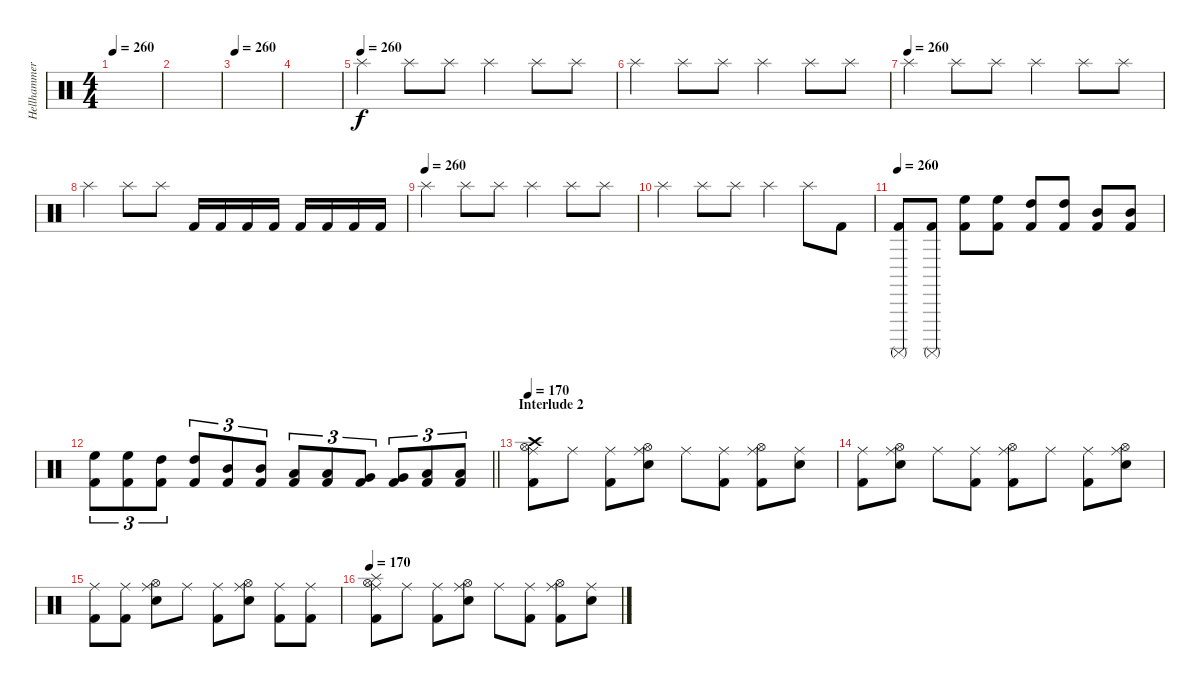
\track ("Hellhammer" "Hellhammer") {instrument percussion}
\staff {score}
\articulation defaults
\ts (4 4)
\tempo 260
\clef neutral
\ks c
|
|
\tempo 260
|
|
\tempo (260)
"Splash (hit)".4 "Splash (hit)".8 "Splash (hit)".8 "Splash (hit)".4 "Splash (hit)".8 "Splash (hit)".8 |
"Splash (hit)".4 "Splash (hit)".8 "Splash (hit)".8 "Splash (hit)".4 "Splash (hit)".8 "Splash (hit)".8 |
\tempo (260)
"Splash (hit)".4 "Splash (hit)".8 "Splash (hit)".8 "Splash (hit)".4 "Splash (hit)".8 "Splash (hit)".8 |
"Splash (hit)".4 "Splash (hit)".8 "Splash (hit)".8 "Kick (hit) 2".16 "Kick (hit) 2".16 "Kick (hit) 2".16 "Kick (hit) 2".16 "Kick (hit) 2".16 "Kick (hit) 2".16 "Kick (hit) 2".16 "Kick (hit) 2".16 |
\tempo (260)
"Splash (hit)".4 "Splash (hit)".8 "Splash (hit)".8 "Splash (hit)".4 "Splash (hit)".8 "Splash (hit)".8 |
"Splash (hit)".4 "Splash (hit)".8 "Splash (hit)".8 "Splash (hit)".4 "Splash (hit)".8 "Kick (hit) 2".8 |
\tempo 260
("Surdo (mute)" "Kick (hit) 2").8 ("Surdo (mute)" "Kick (hit) 2").8 ("High Floor Tom (hit)" "Kick (hit) 2").8 ("High Floor Tom (hit)" "Kick (hit) 2").8 ("High Tom (hit)" "Kick (hit) 2").8 ("High Tom (hit)" "Kick (hit) 2").8 ("Mid Tom (hit)" "Kick (hit) 2").8 ("Mid Tom (hit)" "Kick (hit) 2").8 |
\barLineRight lightlight
("High Floor Tom (hit)" "Kick (hit) 2").8{tu (3 2)} ("High Floor Tom (hit)" "Kick (hit) 2").8{tu (3 2)} ("High Tom (hit)" "Kick (hit) 2").8{tu (3 2)} ("High Tom (hit)" "Kick (hit) 2").8{tu (3 2)} ("Mid Tom (hit)" "Kick (hit) 2").8{tu (3 2)} ("Mid Tom (hit)" "Kick (hit) 2").8{tu (3 2)} ("Low Tom (hit)" "Kick (hit) 2").8{tu (3 2)} ("Low Tom (hit)" "Kick (hit) 2").8{tu (3 2)} ("Very Low Tom (hit)" "Kick (hit) 2").8{tu (3 2)} ("Very Low Tom (hit)" "Kick (hit) 2").8{tu (3 2)} ("Low Floor Tom (hit)" "Kick (hit) 2").8{tu (3 2)} ("Low Floor Tom (hit)" "Kick (hit) 2").8{tu (3 2)} |
\section ("" "Interlude 2")
\tempo 170
("Ride (middle)" "Crash high (hit)" "Hi-Hat (open)" "Kick (hit) 2").8 "Ride (middle)".8 ("Ride (middle)" "Kick (hit) 2").8 ("Ride (middle)" "Hi-Hat (open)" "Snare (hit) 2").8 "Ride (middle)".8 ("Ride (middle)" "Kick (hit) 2").8 ("Ride (middle)" "Hi-Hat (open)" "Kick (hit) 2").8 ("Ride (middle)" "Snare (hit)").8 |
("Ride (middle)" "Kick (hit) 2").8 ("Ride (middle)" "Hi-Hat (open)" "Snare (hit) 2").8 "Ride (middle)".8 ("Ride (middle)" "Kick (hit) 2").8 ("Ride (middle)" "Hi-Hat (open)" "Kick (hit) 2").8 "Ride (middle)".8 ("Ride (middle)" "Kick (hit) 2").8 ("Ride (middle)" "Hi-Hat (open)" "Snare (hit) 2").8 |
("Ride (middle)" "Kick (hit) 2").8 ("Ride (middle)" "Kick (hit) 2").8 ("Ride (middle)" "Hi-Hat (open)" "Snare (hit) 2").8 "Ride (middle)".8 ("Ride (middle)" "Kick (hit) 2").8 ("Ride (middle)" "Hi-Hat (open)" "Snare (hit) 2").8 ("Ride (middle)" "Kick (hit) 2").8 ("Ride (middle)" "Kick (hit) 2").8 |
\tempo 170
("Ride (middle)" "Splash (hit)" "Hi-Hat (open)" "Kick (hit) 2").8 "Ride (middle)".8 ("Ride (middle)" "Kick (hit) 2").8 ("Ride (middle)" "Hi-Hat (open)" "Snare (hit) 2").8 "Ride (middle)".8 ("Ride (middle)" "Kick (hit) 2").8 ("Ride (middle)" "Hi-Hat (open)" "Kick (hit) 2").8 ("Ride (middle)" "Snare (hit)").8
